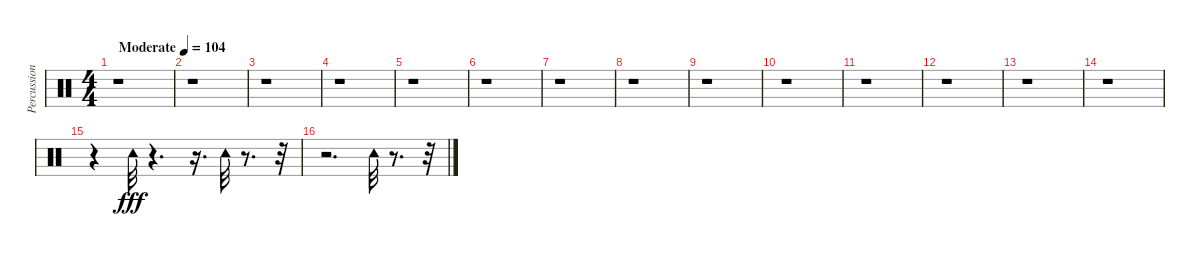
\track ("Percussion" "Percussion") {instrument percussion}
\staff {score}
\articulation defaults
\ts (4 4)
\tempo (104 "Moderate")
\clef neutral
\ks c
r.1{dy fff} |
r.1 |
r.1 |
r.1 |
r.1 |
r.1 |
r.1 |
r.1 |
r.1 |
r.1 |
r.1 |
r.1 |
r.1 |
r.1 |
r.4 "Tambourine (hit)".32 r.4{d} r.16{d} "Tambourine (hit)".32 r.8{d} r.32 |
r.2{d} "Tambourine (hit)".32 r.8{d} r.32
